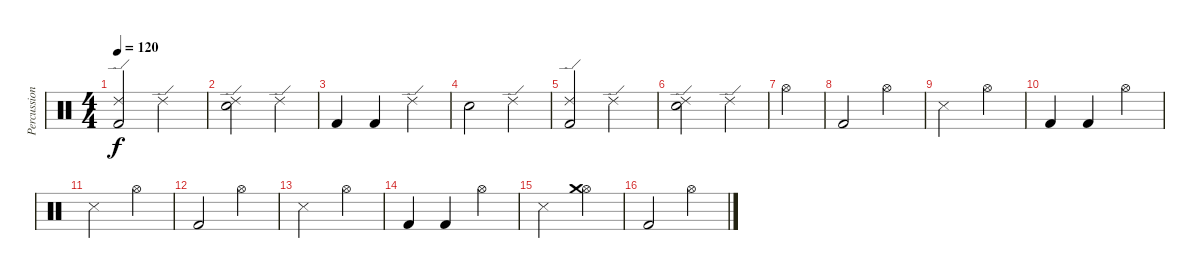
\track ("Percussion" "Percussion") {instrument percussion}
\staff {score}
\articulation defaults
\ts (4 4)
\tempo 120
\clef neutral
\ks c
("Kick (hit) 2" "Ride (edge) 2").2{dy f} "Ride (edge) 2".2 |
("Snare (hit) 2" "Ride (edge) 2").2 "Ride (edge) 2".4 |
"Kick (hit) 2".4 "Kick (hit) 2".4 "Ride (edge) 2".4 |
"Snare (hit) 2".2 "Ride (edge) 2".4 |
("Kick (hit) 2" "Ride (edge) 2").2 "Ride (edge) 2".2 |
("Snare (hit) 2" "Ride (edge) 2").2 "Ride (edge) 2".4 |
"Hi-Hat (open)".4 |
"Kick (hit) 2".2 "Hi-Hat (open)".4 |
"Snare (side stick) 3".2 "Hi-Hat (open)".4 |
"Kick (hit) 2".4 "Kick (hit) 2".4 "Hi-Hat (open)".4 |
"Snare (side stick) 3".2 "Hi-Hat (open)".4 |
"Kick (hit) 2".2 "Hi-Hat (open)".4 |
"Snare (side stick) 3".2 "Hi-Hat (open)".4 |
"Kick (hit) 2".4 "Kick (hit) 2".4 "Hi-Hat (open)".4 |
"Snare (side stick) 3".2 ("Hi-Hat (open)" "Crash medium (hit)").4 |
"Kick (hit) 2".2 "Hi-Hat (open)".4
